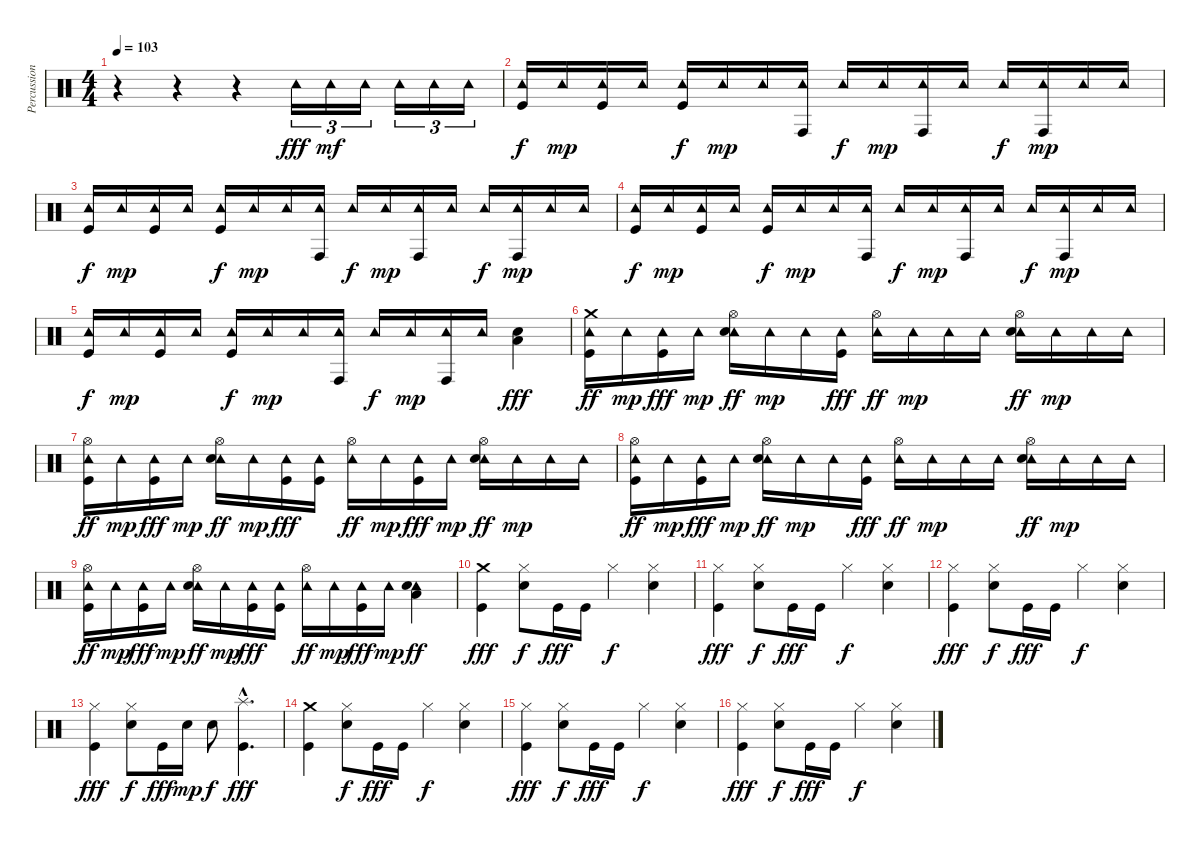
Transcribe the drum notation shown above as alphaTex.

\track ("Percussion" "Percussion") {instrument percussion}
\staff {score}
\articulation defaults
\ts (4 4)
\tempo 103
\clef neutral
\ks c
r.4{dy fff} r.4 r.4 "Tambourine (hit)".16{tu (3 2)} "Tambourine (hit)".16{tu (3 2) dy mf} "Tambourine (hit)".16{tu (3 2)} "Tambourine (hit)".16{tu (3 2)} "Tambourine (hit)".16{tu (3 2)} "Tambourine (hit)".16{tu (3 2)} |
("Tambourine (hit)" "Kick (hit)").16{dy f} "Tambourine (hit)".16{dy mp} ("Tambourine (hit)" "Kick (hit)").16 "Tambourine (hit)".16 ("Tambourine (hit)" "Kick (hit)").16{dy f} "Tambourine (hit)".16{dy mp} "Tambourine (hit)".16 ("Tambourine (hit)" "Conga high (hit)").16 "Tambourine (hit)".16{dy f} "Tambourine (hit)".16{dy mp} ("Tambourine (hit)" "Conga high (hit)").16 "Tambourine (hit)".16 "Tambourine (hit)".16{dy f} ("Tambourine (hit)" "Conga high (hit)").16{dy mp} "Tambourine (hit)".16 "Tambourine (hit)".16 |
("Tambourine (hit)" "Kick (hit)").16{dy f} "Tambourine (hit)".16{dy mp} ("Tambourine (hit)" "Kick (hit)").16 "Tambourine (hit)".16 ("Tambourine (hit)" "Kick (hit)").16{dy f} "Tambourine (hit)".16{dy mp} "Tambourine (hit)".16 ("Tambourine (hit)" "Conga high (hit)").16 "Tambourine (hit)".16{dy f} "Tambourine (hit)".16{dy mp} ("Tambourine (hit)" "Conga high (hit)").16 "Tambourine (hit)".16 "Tambourine (hit)".16{dy f} ("Tambourine (hit)" "Conga high (hit)").16{dy mp} "Tambourine (hit)".16 "Tambourine (hit)".16 |
("Tambourine (hit)" "Kick (hit)").16{dy f} "Tambourine (hit)".16{dy mp} ("Tambourine (hit)" "Kick (hit)").16 "Tambourine (hit)".16 ("Tambourine (hit)" "Kick (hit)").16{dy f} "Tambourine (hit)".16{dy mp} "Tambourine (hit)".16 ("Tambourine (hit)" "Conga high (hit)").16 "Tambourine (hit)".16{dy f} "Tambourine (hit)".16{dy mp} ("Tambourine (hit)" "Conga high (hit)").16 "Tambourine (hit)".16 "Tambourine (hit)".16{dy f} ("Tambourine (hit)" "Conga high (hit)").16{dy mp} "Tambourine (hit)".16 "Tambourine (hit)".16 |
("Tambourine (hit)" "Kick (hit)").16{dy f} "Tambourine (hit)".16{dy mp} ("Tambourine (hit)" "Kick (hit)").16 "Tambourine (hit)".16 ("Tambourine (hit)" "Kick (hit)").16{dy f} "Tambourine (hit)".16{dy mp} "Tambourine (hit)".16 ("Tambourine (hit)" "Conga high (hit)").16 "Tambourine (hit)".16{dy f} "Tambourine (hit)".16{dy mp} ("Tambourine (hit)" "Conga high (hit)").16 "Tambourine (hit)".16 ("Electric Snare (hit)" "Low Floor Tom (hit)").4{dy fff} |
("Tambourine (hit)" "Kick (hit)" "Crash medium (hit)").16{dy ff} "Tambourine (hit)".16{dy mp} ("Tambourine (hit)" "Kick (hit)").16{dy fff} "Tambourine (hit)".16{dy mp} ("Tambourine (hit)" "Electric Snare (hit)" "Hi-Hat (open)").16{dy ff} "Tambourine (hit)".16{dy mp} "Tambourine (hit)".16 ("Tambourine (hit)" "Kick (hit)").16{dy fff} ("Tambourine (hit)" "Hi-Hat (open)").16{dy ff} "Tambourine (hit)".16{dy mp} "Tambourine (hit)".16 "Tambourine (hit)".16 ("Tambourine (hit)" "Electric Snare (hit)" "Hi-Hat (open)").16{dy ff} "Tambourine (hit)".16{dy mp} "Tambourine (hit)".16 "Tambourine (hit)".16 |
("Tambourine (hit)" "Kick (hit)" "Hi-Hat (open)").16{dy ff} "Tambourine (hit)".16{dy mp} ("Tambourine (hit)" "Kick (hit)").16{dy fff} "Tambourine (hit)".16{dy mp} ("Tambourine (hit)" "Electric Snare (hit)" "Hi-Hat (open)").16{dy ff} "Tambourine (hit)".16{dy mp} ("Tambourine (hit)" "Kick (hit)").16{dy fff} ("Tambourine (hit)" "Kick (hit)").16 ("Tambourine (hit)" "Hi-Hat (open)").16{dy ff} "Tambourine (hit)".16{dy mp} ("Tambourine (hit)" "Kick (hit)").16{dy fff} "Tambourine (hit)".16{dy mp} ("Tambourine (hit)" "Electric Snare (hit)" "Hi-Hat (open)").16{dy ff} "Tambourine (hit)".16{dy mp} "Tambourine (hit)".16 "Tambourine (hit)".16 |
("Tambourine (hit)" "Kick (hit)" "Hi-Hat (open)").16{dy ff} "Tambourine (hit)".16{dy mp} ("Tambourine (hit)" "Kick (hit)").16{dy fff} "Tambourine (hit)".16{dy mp} ("Tambourine (hit)" "Electric Snare (hit)" "Hi-Hat (open)").16{dy ff} "Tambourine (hit)".16{dy mp} "Tambourine (hit)".16 ("Tambourine (hit)" "Kick (hit)").16{dy fff} ("Tambourine (hit)" "Hi-Hat (open)").16{dy ff} "Tambourine (hit)".16{dy mp} "Tambourine (hit)".16 "Tambourine (hit)".16 ("Tambourine (hit)" "Electric Snare (hit)" "Hi-Hat (open)").16{dy ff} "Tambourine (hit)".16{dy mp} "Tambourine (hit)".16 "Tambourine (hit)".16 |
("Tambourine (hit)" "Kick (hit)" "Hi-Hat (open)").16{dy ff} "Tambourine (hit)".16{dy mp} ("Tambourine (hit)" "Kick (hit)").16{dy fff} "Tambourine (hit)".16{dy mp} ("Tambourine (hit)" "Electric Snare (hit)" "Hi-Hat (open)").16{dy ff} "Tambourine (hit)".16{dy mp} ("Tambourine (hit)" "Kick (hit)").16{dy fff} ("Tambourine (hit)" "Kick (hit)").16 ("Tambourine (hit)" "Hi-Hat (open)").16{dy ff} "Tambourine (hit)".16{dy mp} ("Tambourine (hit)" "Kick (hit)").16{dy fff} "Tambourine (hit)".16{dy mp} ("Tambourine (hit)" "Electric Snare (hit)" "Low Floor Tom (hit)").4{dy ff} |
("Crash medium (hit)" "Kick (hit)").4{dy fff} ("Hi-Hat (closed)" "Electric Snare (hit)").8{dy f} "Kick (hit)".16{dy fff} "Kick (hit)".16 "Hi-Hat (closed)".4{dy f} ("Hi-Hat (closed)" "Electric Snare (hit)").4 |
("Hi-Hat (closed)" "Kick (hit)").4{dy fff} ("Hi-Hat (closed)" "Electric Snare (hit)").8{dy f} "Kick (hit)".16{dy fff} "Kick (hit)".16 "Hi-Hat (closed)".4{dy f} ("Hi-Hat (closed)" "Electric Snare (hit)").4 |
("Hi-Hat (closed)" "Kick (hit)").4{dy fff} ("Hi-Hat (closed)" "Electric Snare (hit)").8{dy f} "Kick (hit)".16{dy fff} "Kick (hit)".16 "Hi-Hat (closed)".4{dy f} ("Hi-Hat (closed)" "Electric Snare (hit)").4 |
("Hi-Hat (closed)" "Kick (hit)").4{dy fff} ("Hi-Hat (closed)" "Electric Snare (hit)").8{dy f} "Kick (hit)".16{dy fff} "Electric Snare (hit)".16{dy mp} "Electric Snare (hit)".8{dy f} ("Splash (hit)"{hac} "Kick (hit)"{hac}).4{d dy fff} |
("Crash medium (hit)" "Kick (hit)").4 ("Hi-Hat (closed)" "Electric Snare (hit)").8{dy f} "Kick (hit)".16{dy fff} "Kick (hit)".16 "Hi-Hat (closed)".4{dy f} ("Hi-Hat (closed)" "Electric Snare (hit)").4 |
("Hi-Hat (closed)" "Kick (hit)").4{dy fff} ("Hi-Hat (closed)" "Electric Snare (hit)").8{dy f} "Kick (hit)".16{dy fff} "Kick (hit)".16 "Hi-Hat (closed)".4{dy f} ("Hi-Hat (closed)" "Electric Snare (hit)").4 |
("Hi-Hat (closed)" "Kick (hit)").4{dy fff} ("Hi-Hat (closed)" "Electric Snare (hit)").8{dy f} "Kick (hit)".16{dy fff} "Kick (hit)".16 "Hi-Hat (closed)".4{dy f} ("Hi-Hat (closed)" "Electric Snare (hit)").4
